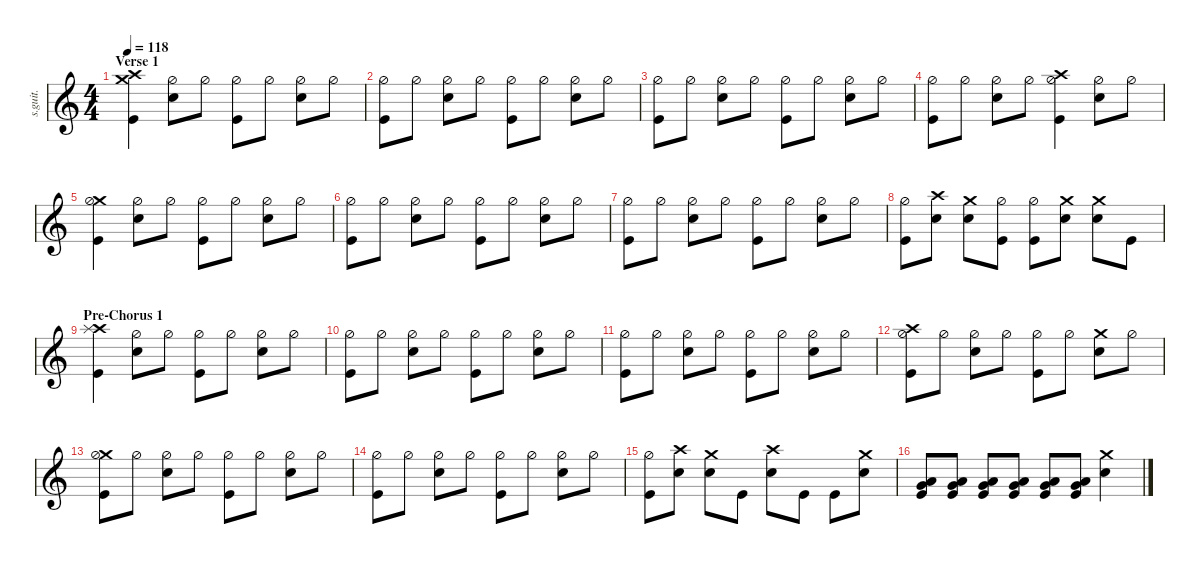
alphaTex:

\defaultSystemsLayout 4
\hideDynamics
\bracketExtendMode nobrackets
\track ("Drums [Arin Ilejay]" "s.guit.") {instrument percussion}
\staff {score}
\articulation defaults
\ts (4 4)
\section ("" "Verse 1")
\tempo 118
\clef g2
\ks c
("Crash high (hit)" "Crash medium (hit)" "Kick (hit)").4{lyrics (0 "") lyrics (1 "") lyrics (2 "") lyrics (3 "") lyrics (4 "") dy f} ("Hi-Hat (half)" "Snare (hit) 2").8{lyrics (0 "") lyrics (1 "") lyrics (2 "") lyrics (3 "") lyrics (4 "")} "Hi-Hat (half)".8{lyrics (0 "") lyrics (1 "") lyrics (2 "") lyrics (3 "") lyrics (4 "")} ("Hi-Hat (half)" "Kick (hit)").8{lyrics (0 "") lyrics (1 "") lyrics (2 "") lyrics (3 "") lyrics (4 "")} "Hi-Hat (half)".8{lyrics (0 "") lyrics (1 "") lyrics (2 "") lyrics (3 "") lyrics (4 "")} ("Hi-Hat (half)" "Snare (hit) 2").8{lyrics (0 "") lyrics (1 "") lyrics (2 "") lyrics (3 "") lyrics (4 "")} "Hi-Hat (half)".8{lyrics (0 "") lyrics (1 "") lyrics (2 "") lyrics (3 "") lyrics (4 "")} |
("Hi-Hat (half)" "Kick (hit)").8{lyrics (0 "") lyrics (1 "") lyrics (2 "") lyrics (3 "") lyrics (4 "")} "Hi-Hat (half)".8{lyrics (0 "") lyrics (1 "") lyrics (2 "") lyrics (3 "") lyrics (4 "")} ("Hi-Hat (half)" "Snare (hit) 2").8{lyrics (0 "") lyrics (1 "") lyrics (2 "") lyrics (3 "") lyrics (4 "")} "Hi-Hat (half)".8{lyrics (0 "") lyrics (1 "") lyrics (2 "") lyrics (3 "") lyrics (4 "")} ("Hi-Hat (half)" "Kick (hit)").8{lyrics (0 "") lyrics (1 "") lyrics (2 "") lyrics (3 "") lyrics (4 "")} "Hi-Hat (half)".8{lyrics (0 "") lyrics (1 "") lyrics (2 "") lyrics (3 "") lyrics (4 "")} ("Hi-Hat (half)" "Snare (hit) 2").8{lyrics (0 "") lyrics (1 "") lyrics (2 "") lyrics (3 "") lyrics (4 "")} "Hi-Hat (half)".8{lyrics (0 "") lyrics (1 "") lyrics (2 "") lyrics (3 "") lyrics (4 "")} |
("Hi-Hat (half)" "Kick (hit)").8{lyrics (0 "") lyrics (1 "") lyrics (2 "") lyrics (3 "") lyrics (4 "")} "Hi-Hat (half)".8{lyrics (0 "") lyrics (1 "") lyrics (2 "") lyrics (3 "") lyrics (4 "")} ("Hi-Hat (half)" "Snare (hit) 2").8{lyrics (0 "") lyrics (1 "") lyrics (2 "") lyrics (3 "") lyrics (4 "")} "Hi-Hat (half)".8{lyrics (0 "") lyrics (1 "") lyrics (2 "") lyrics (3 "") lyrics (4 "")} ("Hi-Hat (half)" "Kick (hit)").8{lyrics (0 "") lyrics (1 "") lyrics (2 "") lyrics (3 "") lyrics (4 "")} "Hi-Hat (half)".8{lyrics (0 "") lyrics (1 "") lyrics (2 "") lyrics (3 "") lyrics (4 "")} ("Hi-Hat (half)" "Snare (hit) 2").8{lyrics (0 "") lyrics (1 "") lyrics (2 "") lyrics (3 "") lyrics (4 "")} "Hi-Hat (half)".8{lyrics (0 "") lyrics (1 "") lyrics (2 "") lyrics (3 "") lyrics (4 "")} |
("Hi-Hat (half)" "Kick (hit)").8{lyrics (0 "") lyrics (1 "") lyrics (2 "") lyrics (3 "") lyrics (4 "")} "Hi-Hat (half)".8{lyrics (0 "") lyrics (1 "") lyrics (2 "") lyrics (3 "") lyrics (4 "")} ("Hi-Hat (half)" "Snare (hit) 2").8{lyrics (0 "") lyrics (1 "") lyrics (2 "") lyrics (3 "") lyrics (4 "")} "Hi-Hat (half)".8{lyrics (0 "") lyrics (1 "") lyrics (2 "") lyrics (3 "") lyrics (4 "")} ("Crash high (hit)" "Hi-Hat (half)" "Kick (hit)").4{lyrics (0 "") lyrics (1 "") lyrics (2 "") lyrics (3 "") lyrics (4 "")} ("Hi-Hat (half)" "Snare (hit) 2").8{lyrics (0 "") lyrics (1 "") lyrics (2 "") lyrics (3 "") lyrics (4 "")} "Hi-Hat (half)".8{lyrics (0 "") lyrics (1 "") lyrics (2 "") lyrics (3 "") lyrics (4 "")} |
("Crash medium (hit)" "Hi-Hat (half)" "Kick (hit)").4{lyrics (0 "") lyrics (1 "") lyrics (2 "") lyrics (3 "") lyrics (4 "")} ("Hi-Hat (half)" "Snare (hit) 2").8{lyrics (0 "") lyrics (1 "") lyrics (2 "") lyrics (3 "") lyrics (4 "")} "Hi-Hat (half)".8{lyrics (0 "") lyrics (1 "") lyrics (2 "") lyrics (3 "") lyrics (4 "")} ("Hi-Hat (half)" "Kick (hit)").8{lyrics (0 "") lyrics (1 "") lyrics (2 "") lyrics (3 "") lyrics (4 "")} "Hi-Hat (half)".8{lyrics (0 "") lyrics (1 "") lyrics (2 "") lyrics (3 "") lyrics (4 "")} ("Hi-Hat (half)" "Snare (hit) 2").8{lyrics (0 "") lyrics (1 "") lyrics (2 "") lyrics (3 "") lyrics (4 "")} "Hi-Hat (half)".8{lyrics (0 "") lyrics (1 "") lyrics (2 "") lyrics (3 "") lyrics (4 "")} |
("Hi-Hat (half)" "Kick (hit)").8{lyrics (0 "") lyrics (1 "") lyrics (2 "") lyrics (3 "") lyrics (4 "")} "Hi-Hat (half)".8{lyrics (0 "") lyrics (1 "") lyrics (2 "") lyrics (3 "") lyrics (4 "")} ("Hi-Hat (half)" "Snare (hit) 2").8{lyrics (0 "") lyrics (1 "") lyrics (2 "") lyrics (3 "") lyrics (4 "")} "Hi-Hat (half)".8{lyrics (0 "") lyrics (1 "") lyrics (2 "") lyrics (3 "") lyrics (4 "")} ("Hi-Hat (half)" "Kick (hit)").8{lyrics (0 "") lyrics (1 "") lyrics (2 "") lyrics (3 "") lyrics (4 "")} "Hi-Hat (half)".8{lyrics (0 "") lyrics (1 "") lyrics (2 "") lyrics (3 "") lyrics (4 "")} ("Hi-Hat (half)" "Snare (hit) 2").8{lyrics (0 "") lyrics (1 "") lyrics (2 "") lyrics (3 "") lyrics (4 "")} "Hi-Hat (half)".8{lyrics (0 "") lyrics (1 "") lyrics (2 "") lyrics (3 "") lyrics (4 "")} |
("Hi-Hat (half)" "Kick (hit)").8{lyrics (0 "") lyrics (1 "") lyrics (2 "") lyrics (3 "") lyrics (4 "")} "Hi-Hat (half)".8{lyrics (0 "") lyrics (1 "") lyrics (2 "") lyrics (3 "") lyrics (4 "")} ("Hi-Hat (half)" "Snare (hit) 2").8{lyrics (0 "") lyrics (1 "") lyrics (2 "") lyrics (3 "") lyrics (4 "")} "Hi-Hat (half)".8{lyrics (0 "") lyrics (1 "") lyrics (2 "") lyrics (3 "") lyrics (4 "")} ("Hi-Hat (half)" "Kick (hit)").8{lyrics (0 "") lyrics (1 "") lyrics (2 "") lyrics (3 "") lyrics (4 "")} "Hi-Hat (half)".8{lyrics (0 "") lyrics (1 "") lyrics (2 "") lyrics (3 "") lyrics (4 "")} ("Hi-Hat (half)" "Snare (hit) 2").8{lyrics (0 "") lyrics (1 "") lyrics (2 "") lyrics (3 "") lyrics (4 "")} "Hi-Hat (half)".8{lyrics (0 "") lyrics (1 "") lyrics (2 "") lyrics (3 "") lyrics (4 "")} |
("Hi-Hat (half)" "Kick (hit)").8{lyrics (0 "") lyrics (1 "") lyrics (2 "") lyrics (3 "") lyrics (4 "")} ("Crash high (hit)" "Snare (hit) 2").8{lyrics (0 "") lyrics (1 "") lyrics (2 "") lyrics (3 "") lyrics (4 "")} ("Crash medium (hit)" "Snare (hit) 2").8{lyrics (0 "") lyrics (1 "") lyrics (2 "") lyrics (3 "") lyrics (4 "")} ("Hi-Hat (half)" "Kick (hit)").8{lyrics (0 "") lyrics (1 "") lyrics (2 "") lyrics (3 "") lyrics (4 "")} ("Hi-Hat (half)" "Kick (hit)").8{lyrics (0 "") lyrics (1 "") lyrics (2 "") lyrics (3 "") lyrics (4 "")} ("Crash medium (hit)" "Snare (hit) 2").8{lyrics (0 "") lyrics (1 "") lyrics (2 "") lyrics (3 "") lyrics (4 "")} ("Crash medium (hit)" "Snare (hit) 2").8{lyrics (0 "") lyrics (1 "") lyrics (2 "") lyrics (3 "") lyrics (4 "")} "Kick (hit)".8{lyrics (0 "") lyrics (1 "") lyrics (2 "") lyrics (3 "") lyrics (4 "")} |
\section ("" "Pre-Chorus 1")
("Crash high (hit)" "Splash (hit)" "Kick (hit)").4{lyrics (0 "") lyrics (1 "") lyrics (2 "") lyrics (3 "") lyrics (4 "")} ("Hi-Hat (half)" "Snare (hit) 2").8{lyrics (0 "") lyrics (1 "") lyrics (2 "") lyrics (3 "") lyrics (4 "")} "Hi-Hat (half)".8{lyrics (0 "") lyrics (1 "") lyrics (2 "") lyrics (3 "") lyrics (4 "")} ("Hi-Hat (half)" "Kick (hit)").8{lyrics (0 "") lyrics (1 "") lyrics (2 "") lyrics (3 "") lyrics (4 "")} "Hi-Hat (half)".8{lyrics (0 "") lyrics (1 "") lyrics (2 "") lyrics (3 "") lyrics (4 "")} ("Hi-Hat (half)" "Snare (hit) 2").8{lyrics (0 "") lyrics (1 "") lyrics (2 "") lyrics (3 "") lyrics (4 "")} "Hi-Hat (half)".8{lyrics (0 "") lyrics (1 "") lyrics (2 "") lyrics (3 "") lyrics (4 "")} |
("Hi-Hat (half)" "Kick (hit)").8{lyrics (0 "") lyrics (1 "") lyrics (2 "") lyrics (3 "") lyrics (4 "")} "Hi-Hat (half)".8{lyrics (0 "") lyrics (1 "") lyrics (2 "") lyrics (3 "") lyrics (4 "")} ("Hi-Hat (half)" "Snare (hit) 2").8{lyrics (0 "") lyrics (1 "") lyrics (2 "") lyrics (3 "") lyrics (4 "")} "Hi-Hat (half)".8{lyrics (0 "") lyrics (1 "") lyrics (2 "") lyrics (3 "") lyrics (4 "")} ("Hi-Hat (half)" "Kick (hit)").8{lyrics (0 "") lyrics (1 "") lyrics (2 "") lyrics (3 "") lyrics (4 "")} "Hi-Hat (half)".8{lyrics (0 "") lyrics (1 "") lyrics (2 "") lyrics (3 "") lyrics (4 "")} ("Hi-Hat (half)" "Snare (hit) 2").8{lyrics (0 "") lyrics (1 "") lyrics (2 "") lyrics (3 "") lyrics (4 "")} "Hi-Hat (half)".8{lyrics (0 "") lyrics (1 "") lyrics (2 "") lyrics (3 "") lyrics (4 "")} |
("Hi-Hat (half)" "Kick (hit)").8{lyrics (0 "") lyrics (1 "") lyrics (2 "") lyrics (3 "") lyrics (4 "")} "Hi-Hat (half)".8{lyrics (0 "") lyrics (1 "") lyrics (2 "") lyrics (3 "") lyrics (4 "")} ("Hi-Hat (half)" "Snare (hit) 2").8{lyrics (0 "") lyrics (1 "") lyrics (2 "") lyrics (3 "") lyrics (4 "")} "Hi-Hat (half)".8{lyrics (0 "") lyrics (1 "") lyrics (2 "") lyrics (3 "") lyrics (4 "")} ("Hi-Hat (half)" "Kick (hit)").8{lyrics (0 "") lyrics (1 "") lyrics (2 "") lyrics (3 "") lyrics (4 "")} "Hi-Hat (half)".8{lyrics (0 "") lyrics (1 "") lyrics (2 "") lyrics (3 "") lyrics (4 "")} ("Hi-Hat (half)" "Snare (hit) 2").8{lyrics (0 "") lyrics (1 "") lyrics (2 "") lyrics (3 "") lyrics (4 "")} "Hi-Hat (half)".8{lyrics (0 "") lyrics (1 "") lyrics (2 "") lyrics (3 "") lyrics (4 "")} |
("Crash high (hit)" "Hi-Hat (half)" "Kick (hit)").8{lyrics (0 "") lyrics (1 "") lyrics (2 "") lyrics (3 "") lyrics (4 "")} "Hi-Hat (half)".8{lyrics (0 "") lyrics (1 "") lyrics (2 "") lyrics (3 "") lyrics (4 "")} ("Hi-Hat (half)" "Snare (hit) 2").8{lyrics (0 "") lyrics (1 "") lyrics (2 "") lyrics (3 "") lyrics (4 "")} "Hi-Hat (half)".8{lyrics (0 "") lyrics (1 "") lyrics (2 "") lyrics (3 "") lyrics (4 "")} ("Hi-Hat (half)" "Kick (hit)").8{lyrics (0 "") lyrics (1 "") lyrics (2 "") lyrics (3 "") lyrics (4 "")} "Hi-Hat (half)".8{lyrics (0 "") lyrics (1 "") lyrics (2 "") lyrics (3 "") lyrics (4 "")} ("Crash medium (hit)" "Snare (hit) 2").8{lyrics (0 "") lyrics (1 "") lyrics (2 "") lyrics (3 "") lyrics (4 "")} "Hi-Hat (half)".8{lyrics (0 "") lyrics (1 "") lyrics (2 "") lyrics (3 "") lyrics (4 "")} |
("Crash medium (hit)" "Hi-Hat (half)" "Kick (hit)").8{lyrics (0 "") lyrics (1 "") lyrics (2 "") lyrics (3 "") lyrics (4 "")} "Hi-Hat (half)".8{lyrics (0 "") lyrics (1 "") lyrics (2 "") lyrics (3 "") lyrics (4 "")} ("Hi-Hat (half)" "Snare (hit) 2").8{lyrics (0 "") lyrics (1 "") lyrics (2 "") lyrics (3 "") lyrics (4 "")} "Hi-Hat (half)".8{lyrics (0 "") lyrics (1 "") lyrics (2 "") lyrics (3 "") lyrics (4 "")} ("Hi-Hat (half)" "Kick (hit)").8{lyrics (0 "") lyrics (1 "") lyrics (2 "") lyrics (3 "") lyrics (4 "")} "Hi-Hat (half)".8{lyrics (0 "") lyrics (1 "") lyrics (2 "") lyrics (3 "") lyrics (4 "")} ("Hi-Hat (half)" "Snare (hit) 2").8{lyrics (0 "") lyrics (1 "") lyrics (2 "") lyrics (3 "") lyrics (4 "")} "Hi-Hat (half)".8{lyrics (0 "") lyrics (1 "") lyrics (2 "") lyrics (3 "") lyrics (4 "")} |
("Hi-Hat (half)" "Kick (hit)").8{lyrics (0 "") lyrics (1 "") lyrics (2 "") lyrics (3 "") lyrics (4 "")} "Hi-Hat (half)".8{lyrics (0 "") lyrics (1 "") lyrics (2 "") lyrics (3 "") lyrics (4 "")} ("Hi-Hat (half)" "Snare (hit) 2").8{lyrics (0 "") lyrics (1 "") lyrics (2 "") lyrics (3 "") lyrics (4 "")} "Hi-Hat (half)".8{lyrics (0 "") lyrics (1 "") lyrics (2 "") lyrics (3 "") lyrics (4 "")} ("Hi-Hat (half)" "Kick (hit)").8{lyrics (0 "") lyrics (1 "") lyrics (2 "") lyrics (3 "") lyrics (4 "")} "Hi-Hat (half)".8{lyrics (0 "") lyrics (1 "") lyrics (2 "") lyrics (3 "") lyrics (4 "")} ("Hi-Hat (half)" "Snare (hit) 2").8{lyrics (0 "") lyrics (1 "") lyrics (2 "") lyrics (3 "") lyrics (4 "")} "Hi-Hat (half)".8{lyrics (0 "") lyrics (1 "") lyrics (2 "") lyrics (3 "") lyrics (4 "")} |
("Hi-Hat (half)" "Kick (hit)").8{lyrics (0 "") lyrics (1 "") lyrics (2 "") lyrics (3 "") lyrics (4 "")} ("Crash high (hit)" "Snare (hit) 2").8{lyrics (0 "") lyrics (1 "") lyrics (2 "") lyrics (3 "") lyrics (4 "")} ("Crash medium (hit)" "Snare (hit) 2").8{lyrics (0 "") lyrics (1 "") lyrics (2 "") lyrics (3 "") lyrics (4 "")} "Kick (hit)".8{lyrics (0 "") lyrics (1 "") lyrics (2 "") lyrics (3 "") lyrics (4 "")} ("Crash high (hit)" "Snare (hit) 2").8{lyrics (0 "") lyrics (1 "") lyrics (2 "") lyrics (3 "") lyrics (4 "")} "Kick (hit)".8{lyrics (0 "") lyrics (1 "") lyrics (2 "") lyrics (3 "") lyrics (4 "")} "Kick (hit)".8{lyrics (0 "") lyrics (1 "") lyrics (2 "") lyrics (3 "") lyrics (4 "")} ("Crash medium (hit)" "Snare (hit) 2").8{lyrics (0 "") lyrics (1 "") lyrics (2 "") lyrics (3 "") lyrics (4 "")} |
("Low Tom (hit)" "Very Low Tom (hit)" "Kick (hit)").8{lyrics (0 "") lyrics (1 "") lyrics (2 "") lyrics (3 "") lyrics (4 "") dy mp} ("Low Tom (hit)" "Very Low Tom (hit)" "Kick (hit)").8{lyrics (0 "") lyrics (1 "") lyrics (2 "") lyrics (3 "") lyrics (4 "")} ("Low Tom (hit)" "Very Low Tom (hit)" "Kick (hit)").8{lyrics (0 "") lyrics (1 "") lyrics (2 "") lyrics (3 "") lyrics (4 "")} ("Low Tom (hit)" "Very Low Tom (hit)" "Kick (hit)").8{lyrics (0 "") lyrics (1 "") lyrics (2 "") lyrics (3 "") lyrics (4 "")} ("Low Tom (hit)" "Very Low Tom (hit)" "Kick (hit)").8{lyrics (0 "") lyrics (1 "") lyrics (2 "") lyrics (3 "") lyrics (4 "")} ("Low Tom (hit)" "Very Low Tom (hit)" "Kick (hit)").8{lyrics (0 "") lyrics (1 "") lyrics (2 "") lyrics (3 "") lyrics (4 "")} ("Crash medium (hit)" "Snare (hit) 2").4{lyrics (0 "") lyrics (1 "") lyrics (2 "") lyrics (3 "") lyrics (4 "") dy f}
